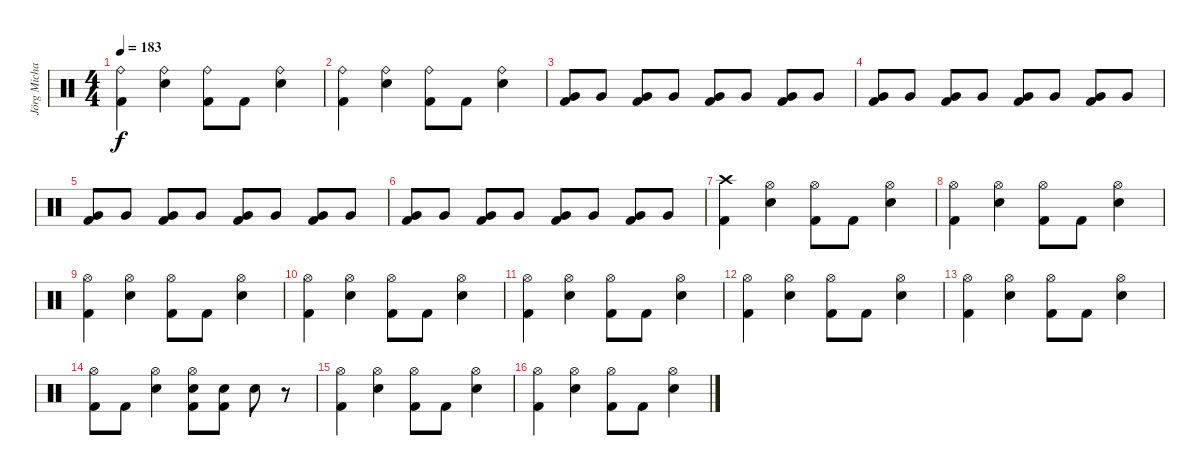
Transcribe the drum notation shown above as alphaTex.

\track ("Jörg Michael" "Jörg Micha") {instrument percussion}
\staff {score}
\articulation defaults
\ts (4 4)
\tempo 183
\clef neutral
\ks c
("Kick (hit) 2" "Ride (bell)").4{dy f} ("Snare (hit) 2" "Ride (bell)").4 ("Kick (hit) 2" "Ride (bell)").8 "Kick (hit) 2".8 ("Snare (hit) 2" "Ride (bell)").4 |
("Kick (hit) 2" "Ride (bell)").4 ("Snare (hit) 2" "Ride (bell)").4 ("Kick (hit) 2" "Ride (bell)").8 "Kick (hit) 2".8 ("Snare (hit) 2" "Ride (bell)").4 |
("Kick (hit) 2" "Very Low Tom (hit)").8 "Very Low Tom (hit)".8 ("Very Low Tom (hit)" "Kick (hit) 2").8 "Very Low Tom (hit)".8 ("Very Low Tom (hit)" "Kick (hit) 2").8 "Very Low Tom (hit)".8 ("Very Low Tom (hit)" "Kick (hit) 2").8 "Very Low Tom (hit)".8 |
("Very Low Tom (hit)" "Kick (hit) 2").8 "Very Low Tom (hit)".8 ("Very Low Tom (hit)" "Kick (hit) 2").8 "Very Low Tom (hit)".8 ("Very Low Tom (hit)" "Kick (hit) 2").8 "Very Low Tom (hit)".8 ("Very Low Tom (hit)" "Kick (hit) 2").8 "Very Low Tom (hit)".8 |
("Very Low Tom (hit)" "Kick (hit) 2").8 "Very Low Tom (hit)".8 ("Very Low Tom (hit)" "Kick (hit) 2").8 "Very Low Tom (hit)".8 ("Very Low Tom (hit)" "Kick (hit) 2").8 "Very Low Tom (hit)".8 ("Very Low Tom (hit)" "Kick (hit) 2").8 "Very Low Tom (hit)".8 |
("Very Low Tom (hit)" "Kick (hit) 2").8 "Very Low Tom (hit)".8 ("Very Low Tom (hit)" "Kick (hit) 2").8 "Very Low Tom (hit)".8 ("Very Low Tom (hit)" "Kick (hit) 2").8 "Very Low Tom (hit)".8 ("Very Low Tom (hit)" "Kick (hit) 2").8 "Very Low Tom (hit)".8 |
("Kick (hit) 2" "Crash high (hit)").4 ("Snare (hit) 2" "Hi-Hat (open)").4 ("Kick (hit) 2" "Hi-Hat (open)").8 "Kick (hit) 2".8 ("Snare (hit) 2" "Hi-Hat (open)").4 |
("Kick (hit) 2" "Hi-Hat (open)").4 ("Snare (hit) 2" "Hi-Hat (open)").4 ("Kick (hit) 2" "Hi-Hat (open)").8 "Kick (hit) 2".8 ("Snare (hit) 2" "Hi-Hat (open)").4 |
("Kick (hit) 2" "Hi-Hat (open)").4 ("Snare (hit) 2" "Hi-Hat (open)").4 ("Kick (hit) 2" "Hi-Hat (open)").8 "Kick (hit) 2".8 ("Snare (hit) 2" "Hi-Hat (open)").4 |
("Kick (hit) 2" "Hi-Hat (open)").4 ("Snare (hit) 2" "Hi-Hat (open)").4 ("Kick (hit) 2" "Hi-Hat (open)").8 "Kick (hit) 2".8 ("Snare (hit) 2" "Hi-Hat (open)").4 |
("Kick (hit) 2" "Hi-Hat (open)").4 ("Snare (hit) 2" "Hi-Hat (open)").4 ("Kick (hit) 2" "Hi-Hat (open)").8 "Kick (hit) 2".8 ("Snare (hit) 2" "Hi-Hat (open)").4 |
("Kick (hit) 2" "Hi-Hat (open)").4 ("Snare (hit) 2" "Hi-Hat (open)").4 ("Kick (hit) 2" "Hi-Hat (open)").8 "Kick (hit) 2".8 ("Snare (hit) 2" "Hi-Hat (open)").4 |
("Kick (hit) 2" "Hi-Hat (open)").4 ("Snare (hit) 2" "Hi-Hat (open)").4 ("Kick (hit) 2" "Hi-Hat (open)").8 "Kick (hit) 2".8 ("Snare (hit) 2" "Hi-Hat (open)").4 |
("Kick (hit) 2" "Hi-Hat (open)").8 "Kick (hit) 2".8 ("Snare (hit) 2" "Hi-Hat (open)").4 ("Snare (hit) 2" "Kick (hit) 2" "Hi-Hat (open)").8 ("Snare (hit) 2" "Kick (hit) 2").8 "Snare (hit) 2".8 r.8 |
("Kick (hit) 2" "Hi-Hat (open)").4 ("Snare (hit) 2" "Hi-Hat (open)").4 ("Kick (hit) 2" "Hi-Hat (open)").8 "Kick (hit) 2".8 ("Snare (hit) 2" "Hi-Hat (open)").4 |
("Kick (hit) 2" "Hi-Hat (open)").4 ("Snare (hit) 2" "Hi-Hat (open)").4 ("Kick (hit) 2" "Hi-Hat (open)").8 "Kick (hit) 2".8 ("Snare (hit) 2" "Hi-Hat (open)").4
